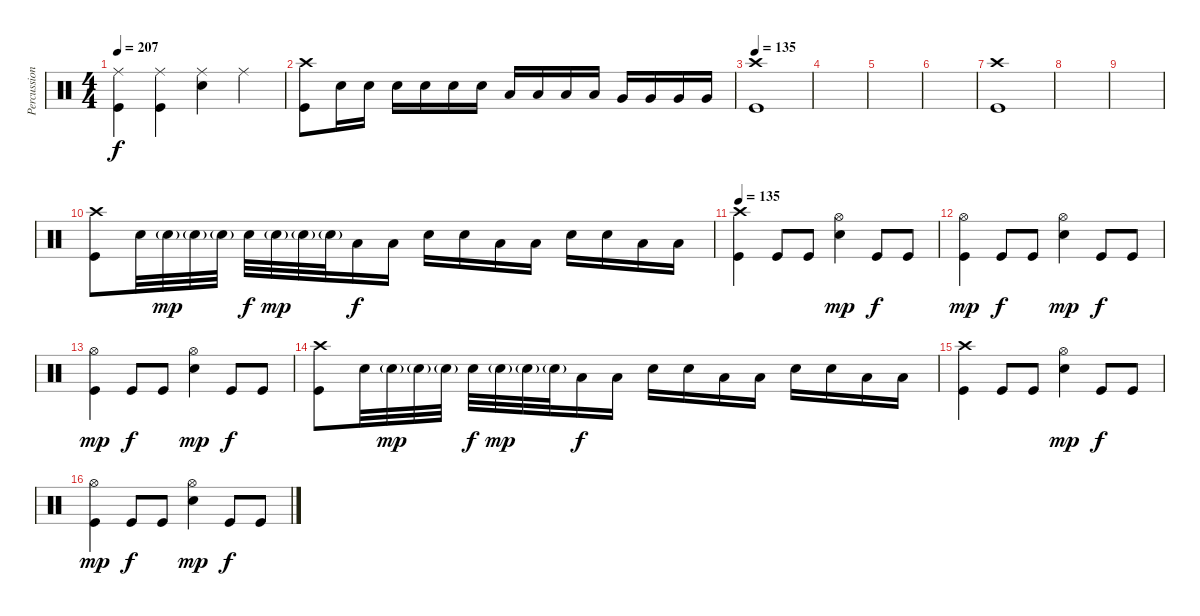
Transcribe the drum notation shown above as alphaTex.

\track ("Percussion" "Percussion") {instrument percussion}
\staff {score}
\articulation defaults
\ts (4 4)
\tempo 207
\clef neutral
\ks c
("Ride (middle)" "Kick (hit)").4{dy f} ("Ride (middle)" "Kick (hit)").4 ("Electric Snare (hit)" "Ride (middle)").4 "Ride (middle)".4 |
("Crash high (hit)" "Kick (hit)").8 "Electric Snare (hit)".16 "Electric Snare (hit)".16 "Electric Snare (hit)".16 "Electric Snare (hit)".16 "Electric Snare (hit)".16 "Electric Snare (hit)".16 "Low Tom (hit)".16 "Low Tom (hit)".16 "Low Tom (hit)".16 "Low Tom (hit)".16 "Very Low Tom (hit)".16 "Very Low Tom (hit)".16 "Very Low Tom (hit)".16 "Very Low Tom (hit)".16 |
\tempo 135
("Crash high (hit)" "Kick (hit)").1 |
|
|
|
("Crash high (hit)" "Kick (hit)").1 |
|
|
("Crash high (hit)" "Kick (hit)").8 "Electric Snare (hit)".32 "Electric Snare (hit)"{g}.32{dy mp} "Electric Snare (hit)"{g}.32 "Electric Snare (hit)"{g}.32 "Electric Snare (hit)".32{dy f} "Electric Snare (hit)"{g}.32{dy mp} "Electric Snare (hit)"{g}.32 "Electric Snare (hit)"{g}.32 "Low Tom (hit)".16{dy f} "Low Tom (hit)".16 "Electric Snare (hit)".16 "Electric Snare (hit)".16 "Low Tom (hit)".16 "Low Tom (hit)".16 "Electric Snare (hit)".16 "Electric Snare (hit)".16 "Low Tom (hit)".16 "Low Tom (hit)".16 |
\tempo 135
("Crash high (hit)" "Kick (hit)").4 "Kick (hit)".8 "Kick (hit)".8 ("Hi-Hat (open)" "Electric Snare (hit)").4{dy mp} "Kick (hit)".8{dy f} "Kick (hit)".8 |
("Hi-Hat (open)" "Kick (hit)").4{dy mp} "Kick (hit)".8{dy f} "Kick (hit)".8 ("Hi-Hat (open)" "Electric Snare (hit)").4{dy mp} "Kick (hit)".8{dy f} "Kick (hit)".8 |
("Hi-Hat (open)" "Kick (hit)").4{dy mp} "Kick (hit)".8{dy f} "Kick (hit)".8 ("Hi-Hat (open)" "Electric Snare (hit)").4{dy mp} "Kick (hit)".8{dy f} "Kick (hit)".8 |
("Crash high (hit)" "Kick (hit)").8 "Electric Snare (hit)".32 "Electric Snare (hit)"{g}.32{dy mp} "Electric Snare (hit)"{g}.32 "Electric Snare (hit)"{g}.32 "Electric Snare (hit)".32{dy f} "Electric Snare (hit)"{g}.32{dy mp} "Electric Snare (hit)"{g}.32 "Electric Snare (hit)"{g}.32 "Low Tom (hit)".16{dy f} "Low Tom (hit)".16 "Electric Snare (hit)".16 "Electric Snare (hit)".16 "Low Tom (hit)".16 "Low Tom (hit)".16 "Electric Snare (hit)".16 "Electric Snare (hit)".16 "Low Tom (hit)".16 "Low Tom (hit)".16 |
("Crash high (hit)" "Kick (hit)").4 "Kick (hit)".8 "Kick (hit)".8 ("Hi-Hat (open)" "Electric Snare (hit)").4{dy mp} "Kick (hit)".8{dy f} "Kick (hit)".8 |
("Hi-Hat (open)" "Kick (hit)").4{dy mp} "Kick (hit)".8{dy f} "Kick (hit)".8 ("Hi-Hat (open)" "Electric Snare (hit)").4{dy mp} "Kick (hit)".8{dy f} "Kick (hit)".8
